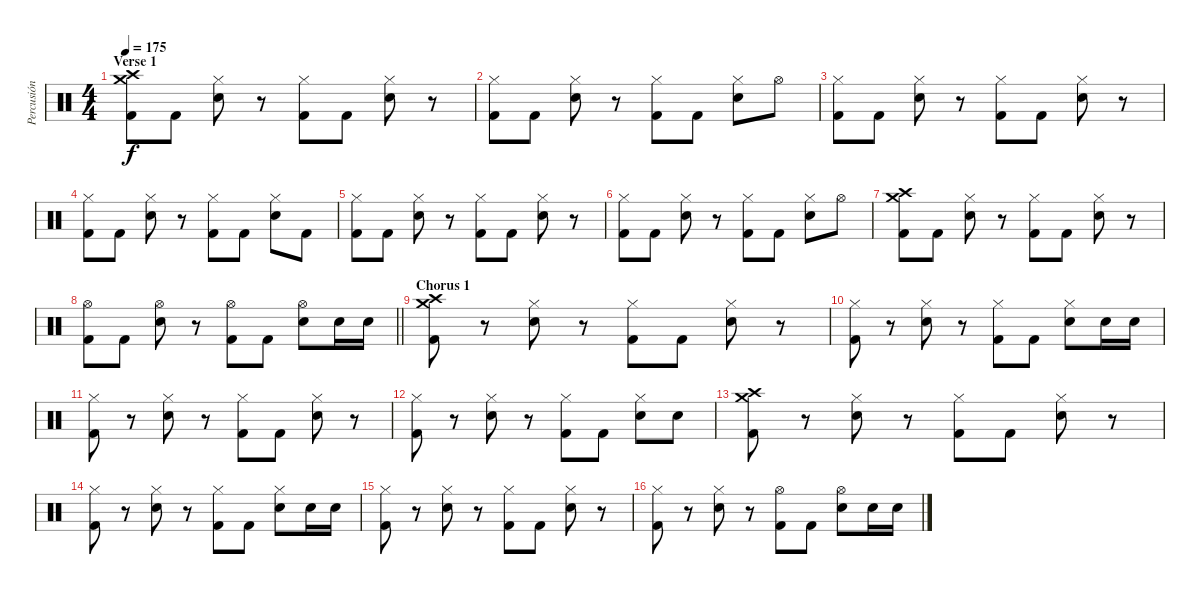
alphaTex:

\track ("Percusión" "Percusión") {instrument percussion}
\staff {score}
\articulation defaults
\ts (4 4)
\section ("" "Verse 1")
\tempo 175
\clef neutral
\ks c
("Crash high (hit)" "Crash medium (hit)" "Kick (hit) 2").8{dy f} "Kick (hit) 2".8 ("Hi-Hat (closed)" "Electric Snare (hit)").8 r.8 ("Hi-Hat (closed)" "Kick (hit) 2").8 "Kick (hit) 2".8 ("Hi-Hat (closed)" "Electric Snare (hit)").8 r.8 |
("Hi-Hat (closed)" "Kick (hit) 2").8 "Kick (hit) 2".8 ("Hi-Hat (closed)" "Electric Snare (hit)").8 r.8 ("Hi-Hat (closed)" "Kick (hit) 2").8 "Kick (hit) 2".8 ("Hi-Hat (closed)" "Electric Snare (hit)").8 "Hi-Hat (open)".8 |
("Hi-Hat (closed)" "Kick (hit) 2").8 "Kick (hit) 2".8 ("Hi-Hat (closed)" "Electric Snare (hit)").8 r.8 ("Hi-Hat (closed)" "Kick (hit) 2").8 "Kick (hit) 2".8 ("Hi-Hat (closed)" "Electric Snare (hit)").8 r.8 |
("Hi-Hat (closed)" "Kick (hit) 2").8 "Kick (hit) 2".8 ("Hi-Hat (closed)" "Electric Snare (hit)").8 r.8 ("Hi-Hat (closed)" "Kick (hit) 2").8 "Kick (hit) 2".8 ("Hi-Hat (closed)" "Electric Snare (hit)").8 "Kick (hit) 2".8 |
("Hi-Hat (closed)" "Kick (hit) 2").8 "Kick (hit) 2".8 ("Hi-Hat (closed)" "Electric Snare (hit)").8 r.8 ("Hi-Hat (closed)" "Kick (hit) 2").8 "Kick (hit) 2".8 ("Hi-Hat (closed)" "Electric Snare (hit)").8 r.8 |
("Hi-Hat (closed)" "Kick (hit) 2").8 "Kick (hit) 2".8 ("Hi-Hat (closed)" "Electric Snare (hit)").8 r.8 ("Hi-Hat (closed)" "Kick (hit) 2").8 "Kick (hit) 2".8 ("Hi-Hat (closed)" "Electric Snare (hit)").8 "Hi-Hat (open)".8 |
("Crash high (hit)" "Crash medium (hit)" "Kick (hit) 2").8 "Kick (hit) 2".8 ("Hi-Hat (closed)" "Electric Snare (hit)").8 r.8 ("Hi-Hat (closed)" "Kick (hit) 2").8 "Kick (hit) 2".8 ("Hi-Hat (closed)" "Electric Snare (hit)").8 r.8 |
\barLineRight lightlight
("Hi-Hat (open)" "Kick (hit) 2").8 "Kick (hit) 2".8 ("Hi-Hat (open)" "Electric Snare (hit)").8 r.8 ("Hi-Hat (open)" "Kick (hit) 2").8 "Kick (hit) 2".8 ("Hi-Hat (open)" "Electric Snare (hit)").8 "Electric Snare (hit)".16 "Electric Snare (hit)".16 |
\section ("" "Chorus 1")
("Crash high (hit)" "Crash medium (hit)" "Kick (hit) 2").8 r.8 ("Hi-Hat (closed)" "Electric Snare (hit)").8 r.8 ("Hi-Hat (closed)" "Kick (hit) 2").8 "Kick (hit) 2".8 ("Hi-Hat (closed)" "Electric Snare (hit)").8 r.8 |
("Hi-Hat (closed)" "Kick (hit) 2").8 r.8 ("Hi-Hat (closed)" "Electric Snare (hit)").8 r.8 ("Hi-Hat (closed)" "Kick (hit) 2").8 "Kick (hit) 2".8 ("Hi-Hat (closed)" "Electric Snare (hit)").8 "Electric Snare (hit)".16 "Electric Snare (hit)".16 |
("Hi-Hat (closed)" "Kick (hit) 2").8 r.8 ("Hi-Hat (closed)" "Electric Snare (hit)").8 r.8 ("Hi-Hat (closed)" "Kick (hit) 2").8 "Kick (hit) 2".8 ("Hi-Hat (closed)" "Electric Snare (hit)").8 r.8 |
("Hi-Hat (closed)" "Kick (hit) 2").8 r.8 ("Hi-Hat (closed)" "Electric Snare (hit)").8 r.8 ("Hi-Hat (closed)" "Kick (hit) 2").8 "Kick (hit) 2".8 ("Hi-Hat (closed)" "Electric Snare (hit)").8 "Electric Snare (hit)".8 |
("Crash high (hit)" "Crash medium (hit)" "Kick (hit) 2").8 r.8 ("Hi-Hat (closed)" "Electric Snare (hit)").8 r.8 ("Hi-Hat (closed)" "Kick (hit) 2").8 "Kick (hit) 2".8 ("Hi-Hat (closed)" "Electric Snare (hit)").8 r.8 |
("Hi-Hat (closed)" "Kick (hit) 2").8 r.8 ("Hi-Hat (closed)" "Electric Snare (hit)").8 r.8 ("Hi-Hat (closed)" "Kick (hit) 2").8 "Kick (hit) 2".8 ("Hi-Hat (closed)" "Electric Snare (hit)").8 "Electric Snare (hit)".16 "Electric Snare (hit)".16 |
("Hi-Hat (closed)" "Kick (hit) 2").8 r.8 ("Hi-Hat (closed)" "Electric Snare (hit)").8 r.8 ("Hi-Hat (closed)" "Kick (hit) 2").8 "Kick (hit) 2".8 ("Hi-Hat (closed)" "Electric Snare (hit)").8 r.8 |
("Hi-Hat (closed)" "Kick (hit) 2").8 r.8 ("Hi-Hat (closed)" "Electric Snare (hit)").8 r.8 ("Hi-Hat (open)" "Kick (hit) 2").8 "Kick (hit) 2".8 ("Hi-Hat (open)" "Electric Snare (hit)").8 "Electric Snare (hit)".16 "Electric Snare (hit)".16
